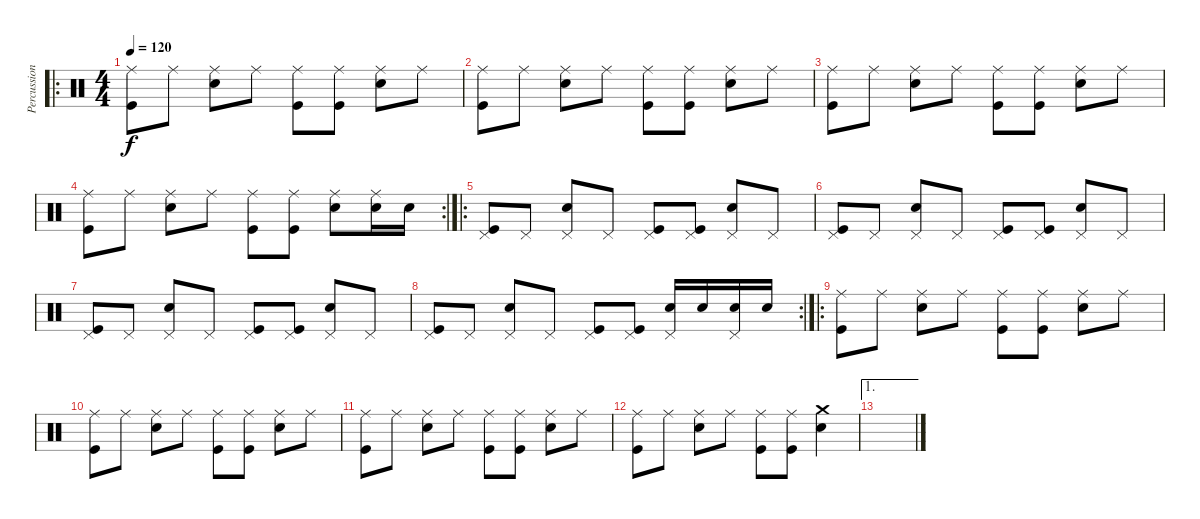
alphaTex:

\track ("Percussions" "Percussion") {instrument percussion}
\staff {score}
\articulation defaults
\ro
\ts (4 4)
\tempo 120
\clef neutral
\ks c
("Ride (middle)" "Kick (hit)").8{dy f} "Ride (middle)".8 ("Ride (middle)" "Electric Snare (hit)").8 "Ride (middle)".8 ("Ride (middle)" "Kick (hit)").8 ("Ride (middle)" "Kick (hit)").8 ("Ride (middle)" "Electric Snare (hit)").8 "Ride (middle)".8 |
("Ride (middle)" "Kick (hit)").8 "Ride (middle)".8 ("Ride (middle)" "Electric Snare (hit)").8 "Ride (middle)".8 ("Ride (middle)" "Kick (hit)").8 ("Ride (middle)" "Kick (hit)").8 ("Ride (middle)" "Electric Snare (hit)").8 "Ride (middle)".8 |
("Ride (middle)" "Kick (hit)").8 "Ride (middle)".8 ("Ride (middle)" "Electric Snare (hit)").8 "Ride (middle)".8 ("Ride (middle)" "Kick (hit)").8 ("Ride (middle)" "Kick (hit)").8 ("Ride (middle)" "Electric Snare (hit)").8 "Ride (middle)".8 |
\rc 2
("Ride (middle)" "Kick (hit)").8 "Ride (middle)".8 ("Ride (middle)" "Electric Snare (hit)").8 "Ride (middle)".8 ("Ride (middle)" "Kick (hit)").8 ("Ride (middle)" "Kick (hit)").8 ("Ride (middle)" "Electric Snare (hit)").8 ("Ride (middle)" "Electric Snare (hit)").16 "Electric Snare (hit)".16 |
\ro
("Pedal Hi-Hat (hit)" "Kick (hit)").8 "Pedal Hi-Hat (hit)".8 ("Pedal Hi-Hat (hit)" "Electric Snare (hit)").8 "Pedal Hi-Hat (hit)".8 ("Pedal Hi-Hat (hit)" "Kick (hit)").8 ("Pedal Hi-Hat (hit)" "Kick (hit)").8 ("Pedal Hi-Hat (hit)" "Electric Snare (hit)").8 "Pedal Hi-Hat (hit)".8 |
("Pedal Hi-Hat (hit)" "Kick (hit)").8 "Pedal Hi-Hat (hit)".8 ("Pedal Hi-Hat (hit)" "Electric Snare (hit)").8 "Pedal Hi-Hat (hit)".8 ("Pedal Hi-Hat (hit)" "Kick (hit)").8 ("Pedal Hi-Hat (hit)" "Kick (hit)").8 ("Pedal Hi-Hat (hit)" "Electric Snare (hit)").8 "Pedal Hi-Hat (hit)".8 |
("Pedal Hi-Hat (hit)" "Kick (hit)").8 "Pedal Hi-Hat (hit)".8 ("Pedal Hi-Hat (hit)" "Electric Snare (hit)").8 "Pedal Hi-Hat (hit)".8 ("Pedal Hi-Hat (hit)" "Kick (hit)").8 ("Pedal Hi-Hat (hit)" "Kick (hit)").8 ("Pedal Hi-Hat (hit)" "Electric Snare (hit)").8 "Pedal Hi-Hat (hit)".8 |
\rc 2
("Pedal Hi-Hat (hit)" "Kick (hit)").8 "Pedal Hi-Hat (hit)".8 ("Pedal Hi-Hat (hit)" "Electric Snare (hit)").8 "Pedal Hi-Hat (hit)".8 ("Pedal Hi-Hat (hit)" "Kick (hit)").8 ("Pedal Hi-Hat (hit)" "Kick (hit)").8 ("Pedal Hi-Hat (hit)" "Electric Snare (hit)").16 "Electric Snare (hit)".16 ("Pedal Hi-Hat (hit)" "Electric Snare (hit)").16 "Electric Snare (hit)".16 |
\ro
("Ride (middle)" "Kick (hit)").8 "Ride (middle)".8 ("Ride (middle)" "Electric Snare (hit)").8 "Ride (middle)".8 ("Ride (middle)" "Kick (hit)").8 ("Ride (middle)" "Kick (hit)").8 ("Ride (middle)" "Electric Snare (hit)").8 "Ride (middle)".8 |
("Ride (middle)" "Kick (hit)").8 "Ride (middle)".8 ("Ride (middle)" "Electric Snare (hit)").8 "Ride (middle)".8 ("Ride (middle)" "Kick (hit)").8 ("Ride (middle)" "Kick (hit)").8 ("Ride (middle)" "Electric Snare (hit)").8 "Ride (middle)".8 |
("Ride (middle)" "Kick (hit)").8 "Ride (middle)".8 ("Ride (middle)" "Electric Snare (hit)").8 "Ride (middle)".8 ("Ride (middle)" "Kick (hit)").8 ("Ride (middle)" "Kick (hit)").8 ("Ride (middle)" "Electric Snare (hit)").8 "Ride (middle)".8 |
("Ride (middle)" "Kick (hit)").8 "Ride (middle)".8 ("Ride (middle)" "Electric Snare (hit)").8 "Ride (middle)".8 ("Ride (middle)" "Kick (hit)").8 ("Ride (middle)" "Kick (hit)").8 ("Crash medium (hit)" "Electric Snare (hit)").4 |
\ae 1
